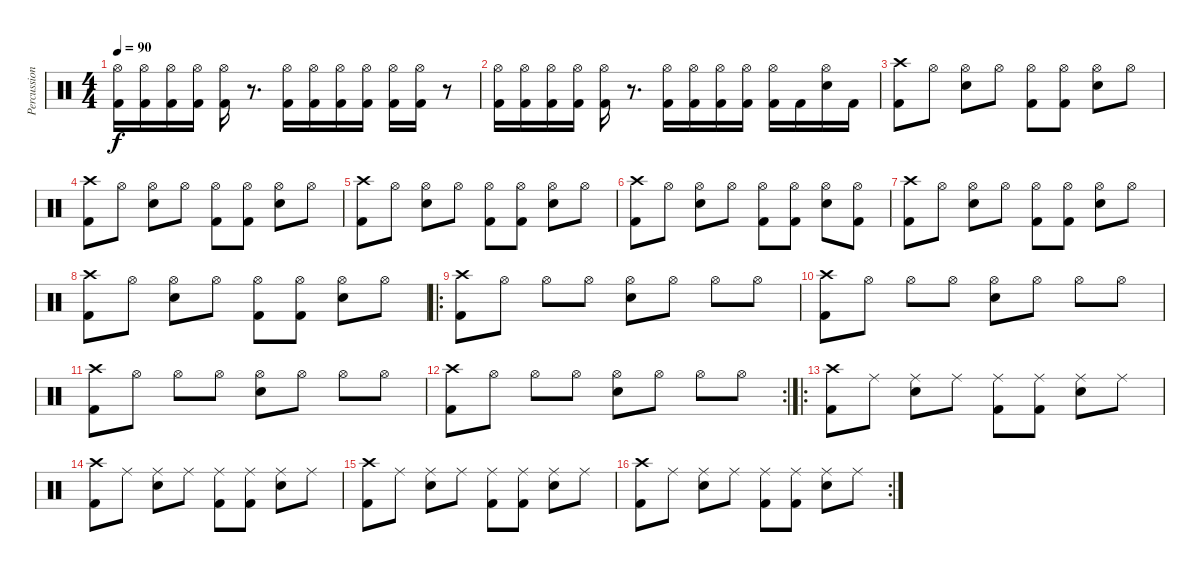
\track ("Percussion" "Percussion") {instrument percussion}
\staff {score}
\articulation defaults
\ts (4 4)
\tempo 90
\clef neutral
\ks c
("Hi-Hat (open)" "Kick (hit) 2").16{dy f} ("Hi-Hat (open)" "Kick (hit) 2").16 ("Hi-Hat (open)" "Kick (hit) 2").16 ("Hi-Hat (open)" "Kick (hit) 2").16 ("Hi-Hat (open)" "Kick (hit) 2").16 r.8{d} ("Hi-Hat (open)" "Kick (hit) 2").16 ("Hi-Hat (open)" "Kick (hit) 2").16 ("Hi-Hat (open)" "Kick (hit) 2").16 ("Hi-Hat (open)" "Kick (hit) 2").16 ("Hi-Hat (open)" "Kick (hit) 2").16 ("Hi-Hat (open)" "Kick (hit) 2").16 r.8 |
("Hi-Hat (open)" "Kick (hit) 2").16 ("Hi-Hat (open)" "Kick (hit) 2").16 ("Hi-Hat (open)" "Kick (hit) 2").16 ("Hi-Hat (open)" "Kick (hit) 2").16 ("Hi-Hat (open)" "Kick (hit) 2").16 r.8{d} ("Hi-Hat (open)" "Kick (hit) 2").16 ("Hi-Hat (open)" "Kick (hit) 2").16 ("Hi-Hat (open)" "Kick (hit) 2").16 ("Hi-Hat (open)" "Kick (hit) 2").16 ("Hi-Hat (open)" "Kick (hit) 2").16 "Kick (hit) 2".16 ("Hi-Hat (open)" "Snare (hit) 2").16 "Kick (hit) 2".16 |
("Crash high (hit)" "Kick (hit) 2").8 "Hi-Hat (open)".8 ("Hi-Hat (open)" "Snare (hit) 2").8 "Hi-Hat (open)".8 ("Hi-Hat (open)" "Kick (hit) 2").8 ("Hi-Hat (open)" "Kick (hit) 2").8 ("Hi-Hat (open)" "Snare (hit) 2").8 "Hi-Hat (open)".8 |
("Crash high (hit)" "Kick (hit) 2").8 "Hi-Hat (open)".8 ("Hi-Hat (open)" "Snare (hit) 2").8 "Hi-Hat (open)".8 ("Hi-Hat (open)" "Kick (hit) 2").8 ("Hi-Hat (open)" "Kick (hit) 2").8 ("Hi-Hat (open)" "Snare (hit) 2").8 "Hi-Hat (open)".8 |
("Crash high (hit)" "Kick (hit) 2").8 "Hi-Hat (open)".8 ("Hi-Hat (open)" "Snare (hit) 2").8 "Hi-Hat (open)".8 ("Hi-Hat (open)" "Kick (hit) 2").8 ("Hi-Hat (open)" "Kick (hit) 2").8 ("Hi-Hat (open)" "Snare (hit) 2").8 "Hi-Hat (open)".8 |
("Crash high (hit)" "Kick (hit) 2").8 "Hi-Hat (open)".8 ("Hi-Hat (open)" "Snare (hit) 2").8 "Hi-Hat (open)".8 ("Hi-Hat (open)" "Kick (hit) 2").8 ("Hi-Hat (open)" "Kick (hit) 2").8 ("Hi-Hat (open)" "Snare (hit) 2").8 ("Hi-Hat (open)" "Kick (hit) 2").8 |
("Crash high (hit)" "Kick (hit) 2").8 "Hi-Hat (open)".8 ("Hi-Hat (open)" "Snare (hit) 2").8 "Hi-Hat (open)".8 ("Hi-Hat (open)" "Kick (hit) 2").8 ("Hi-Hat (open)" "Kick (hit) 2").8 ("Hi-Hat (open)" "Snare (hit) 2").8 "Hi-Hat (open)".8 |
("Crash high (hit)" "Kick (hit) 2").8 "Hi-Hat (open)".8 ("Hi-Hat (open)" "Snare (hit) 2").8 "Hi-Hat (open)".8 ("Hi-Hat (open)" "Kick (hit) 2").8 ("Hi-Hat (open)" "Kick (hit) 2").8 ("Hi-Hat (open)" "Snare (hit) 2").8 "Hi-Hat (open)".8 |
\ro
("Crash high (hit)" "Kick (hit) 2").8 "Hi-Hat (open)".8 "Hi-Hat (open)".8 "Hi-Hat (open)".8 ("Hi-Hat (open)" "Snare (hit) 2").8 "Hi-Hat (open)".8 "Hi-Hat (open)".8 "Hi-Hat (open)".8 |
("Crash high (hit)" "Kick (hit) 2").8 "Hi-Hat (open)".8 "Hi-Hat (open)".8 "Hi-Hat (open)".8 ("Hi-Hat (open)" "Snare (hit) 2").8 "Hi-Hat (open)".8 "Hi-Hat (open)".8 "Hi-Hat (open)".8 |
("Crash high (hit)" "Kick (hit) 2").8 "Hi-Hat (open)".8 "Hi-Hat (open)".8 "Hi-Hat (open)".8 ("Hi-Hat (open)" "Snare (hit) 2").8 "Hi-Hat (open)".8 "Hi-Hat (open)".8 "Hi-Hat (open)".8 |
\rc 2
("Crash high (hit)" "Kick (hit) 2").8 "Hi-Hat (open)".8 "Hi-Hat (open)".8 "Hi-Hat (open)".8 ("Hi-Hat (open)" "Snare (hit) 2").8 "Hi-Hat (open)".8 "Hi-Hat (open)".8 "Hi-Hat (open)".8 |
\ro
("Crash high (hit)" "Kick (hit) 2").8 "Ride (middle)".8 ("Ride (middle)" "Snare (hit) 2").8 "Ride (middle)".8 ("Ride (middle)" "Kick (hit) 2").8 ("Ride (middle)" "Kick (hit) 2").8 ("Ride (middle)" "Snare (hit) 2").8 "Ride (middle)".8 |
("Crash high (hit)" "Kick (hit) 2").8 "Ride (middle)".8 ("Ride (middle)" "Snare (hit) 2").8 "Ride (middle)".8 ("Ride (middle)" "Kick (hit) 2").8 ("Ride (middle)" "Kick (hit) 2").8 ("Ride (middle)" "Snare (hit) 2").8 "Ride (middle)".8 |
("Crash high (hit)" "Kick (hit) 2").8 "Ride (middle)".8 ("Ride (middle)" "Snare (hit) 2").8 "Ride (middle)".8 ("Ride (middle)" "Kick (hit) 2").8 ("Ride (middle)" "Kick (hit) 2").8 ("Ride (middle)" "Snare (hit) 2").8 "Ride (middle)".8 |
\rc 2
("Crash high (hit)" "Kick (hit) 2").8 "Ride (middle)".8 ("Ride (middle)" "Snare (hit) 2").8 "Ride (middle)".8 ("Ride (middle)" "Kick (hit) 2").8 ("Ride (middle)" "Kick (hit) 2").8 ("Ride (middle)" "Snare (hit) 2").8 "Ride (middle)".8
